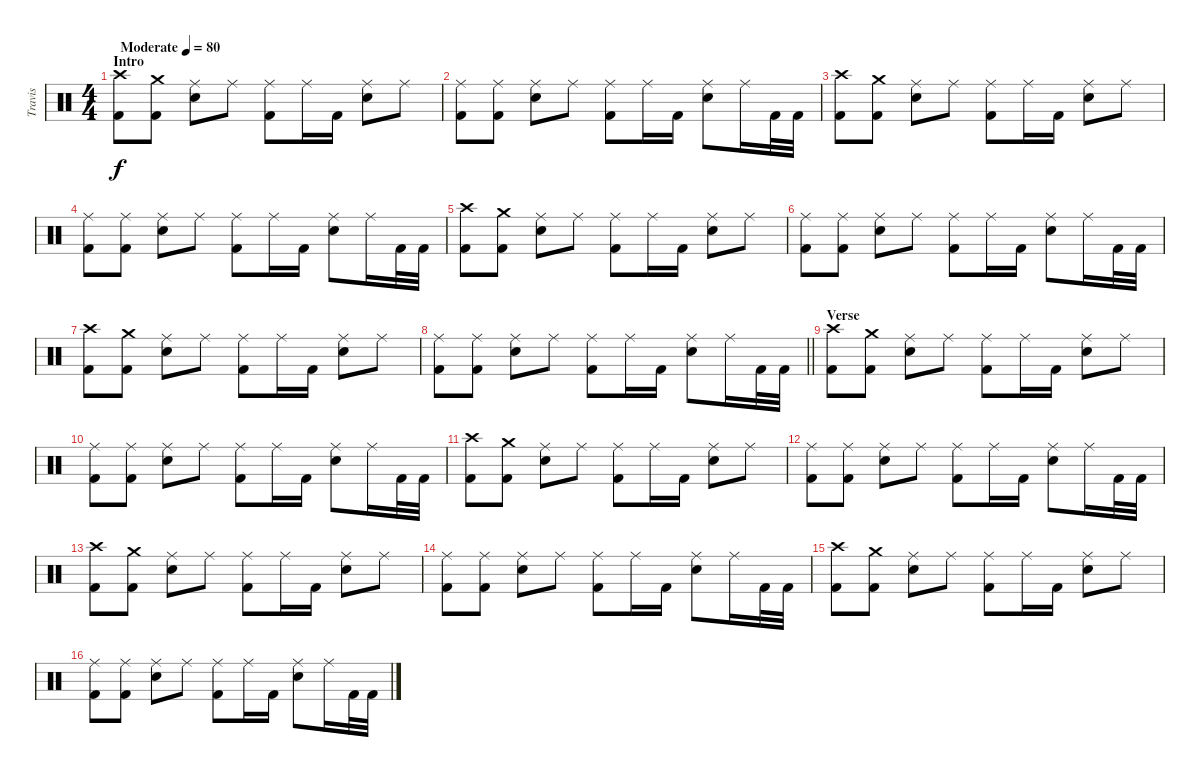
\track ("Travis" "Travis") {instrument percussion}
\staff {score}
\articulation defaults
\ts (4 4)
\section ("" "Intro")
\tempo (80 "Moderate")
\clef neutral
\ks c
("Crash high (hit)" "Kick (hit) 2").8{dy f} ("Crash medium (hit)" "Kick (hit) 2").8 ("Ride (middle)" "Snare (hit) 2").8 "Ride (middle)".8 ("Ride (middle)" "Kick (hit) 2").8 "Ride (middle)".16 "Kick (hit) 2".16 ("Ride (middle)" "Electric Snare (hit)").8 "Ride (middle)".8 |
("Ride (middle)" "Kick (hit) 2").8 ("Ride (middle)" "Kick (hit) 2").8 ("Ride (middle)" "Snare (hit) 2").8 "Ride (middle)".8 ("Ride (middle)" "Kick (hit) 2").8 "Ride (middle)".16 "Kick (hit) 2".16 ("Ride (middle)" "Electric Snare (hit)").8 "Ride (middle)".16 "Kick (hit) 2".32 "Kick (hit) 2".32 |
("Crash high (hit)" "Kick (hit) 2").8 ("Crash medium (hit)" "Kick (hit) 2").8 ("Ride (middle)" "Snare (hit) 2").8 "Ride (middle)".8 ("Ride (middle)" "Kick (hit) 2").8 "Ride (middle)".16 "Kick (hit) 2".16 ("Ride (middle)" "Electric Snare (hit)").8 "Ride (middle)".8 |
("Ride (middle)" "Kick (hit) 2").8 ("Ride (middle)" "Kick (hit) 2").8 ("Ride (middle)" "Snare (hit) 2").8 "Ride (middle)".8 ("Ride (middle)" "Kick (hit) 2").8 "Ride (middle)".16 "Kick (hit) 2".16 ("Ride (middle)" "Electric Snare (hit)").8 "Ride (middle)".16 "Kick (hit) 2".32 "Kick (hit) 2".32 |
("Crash high (hit)" "Kick (hit) 2").8 ("Crash medium (hit)" "Kick (hit) 2").8 ("Ride (middle)" "Snare (hit) 2").8 "Ride (middle)".8 ("Ride (middle)" "Kick (hit) 2").8 "Ride (middle)".16 "Kick (hit) 2".16 ("Ride (middle)" "Electric Snare (hit)").8 "Ride (middle)".8 |
("Ride (middle)" "Kick (hit) 2").8 ("Ride (middle)" "Kick (hit) 2").8 ("Ride (middle)" "Snare (hit) 2").8 "Ride (middle)".8 ("Ride (middle)" "Kick (hit) 2").8 "Ride (middle)".16 "Kick (hit) 2".16 ("Ride (middle)" "Electric Snare (hit)").8 "Ride (middle)".16 "Kick (hit) 2".32 "Kick (hit) 2".32 |
("Crash high (hit)" "Kick (hit) 2").8 ("Crash medium (hit)" "Kick (hit) 2").8 ("Ride (middle)" "Snare (hit) 2").8 "Ride (middle)".8 ("Ride (middle)" "Kick (hit) 2").8 "Ride (middle)".16 "Kick (hit) 2".16 ("Ride (middle)" "Electric Snare (hit)").8 "Ride (middle)".8 |
\barLineRight lightlight
("Ride (middle)" "Kick (hit) 2").8 ("Ride (middle)" "Kick (hit) 2").8 ("Ride (middle)" "Snare (hit) 2").8 "Ride (middle)".8 ("Ride (middle)" "Kick (hit) 2").8 "Ride (middle)".16 "Kick (hit) 2".16 ("Ride (middle)" "Electric Snare (hit)").8 "Ride (middle)".16 "Kick (hit) 2".32 "Kick (hit) 2".32 |
\section ("" "Verse")
("Crash high (hit)" "Kick (hit) 2").8 ("Crash medium (hit)" "Kick (hit) 2").8 ("Ride (middle)" "Snare (hit) 2").8 "Ride (middle)".8 ("Ride (middle)" "Kick (hit) 2").8 "Ride (middle)".16 "Kick (hit) 2".16 ("Ride (middle)" "Electric Snare (hit)").8 "Ride (middle)".8 |
("Ride (middle)" "Kick (hit) 2").8 ("Ride (middle)" "Kick (hit) 2").8 ("Ride (middle)" "Snare (hit) 2").8 "Ride (middle)".8 ("Ride (middle)" "Kick (hit) 2").8 "Ride (middle)".16 "Kick (hit) 2".16 ("Ride (middle)" "Electric Snare (hit)").8 "Ride (middle)".16 "Kick (hit) 2".32 "Kick (hit) 2".32 |
("Crash high (hit)" "Kick (hit) 2").8 ("Crash medium (hit)" "Kick (hit) 2").8 ("Ride (middle)" "Snare (hit) 2").8 "Ride (middle)".8 ("Ride (middle)" "Kick (hit) 2").8 "Ride (middle)".16 "Kick (hit) 2".16 ("Ride (middle)" "Electric Snare (hit)").8 "Ride (middle)".8 |
("Ride (middle)" "Kick (hit) 2").8 ("Ride (middle)" "Kick (hit) 2").8 ("Ride (middle)" "Snare (hit) 2").8 "Ride (middle)".8 ("Ride (middle)" "Kick (hit) 2").8 "Ride (middle)".16 "Kick (hit) 2".16 ("Ride (middle)" "Electric Snare (hit)").8 "Ride (middle)".16 "Kick (hit) 2".32 "Kick (hit) 2".32 |
("Crash high (hit)" "Kick (hit) 2").8 ("Crash medium (hit)" "Kick (hit) 2").8 ("Ride (middle)" "Snare (hit) 2").8 "Ride (middle)".8 ("Ride (middle)" "Kick (hit) 2").8 "Ride (middle)".16 "Kick (hit) 2".16 ("Ride (middle)" "Electric Snare (hit)").8 "Ride (middle)".8 |
("Ride (middle)" "Kick (hit) 2").8 ("Ride (middle)" "Kick (hit) 2").8 ("Ride (middle)" "Snare (hit) 2").8 "Ride (middle)".8 ("Ride (middle)" "Kick (hit) 2").8 "Ride (middle)".16 "Kick (hit) 2".16 ("Ride (middle)" "Electric Snare (hit)").8 "Ride (middle)".16 "Kick (hit) 2".32 "Kick (hit) 2".32 |
("Crash high (hit)" "Kick (hit) 2").8 ("Crash medium (hit)" "Kick (hit) 2").8 ("Ride (middle)" "Snare (hit) 2").8 "Ride (middle)".8 ("Ride (middle)" "Kick (hit) 2").8 "Ride (middle)".16 "Kick (hit) 2".16 ("Ride (middle)" "Electric Snare (hit)").8 "Ride (middle)".8 |
("Ride (middle)" "Kick (hit) 2").8 ("Ride (middle)" "Kick (hit) 2").8 ("Ride (middle)" "Snare (hit) 2").8 "Ride (middle)".8 ("Ride (middle)" "Kick (hit) 2").8 "Ride (middle)".16 "Kick (hit) 2".16 ("Ride (middle)" "Electric Snare (hit)").8 "Ride (middle)".16 "Kick (hit) 2".32 "Kick (hit) 2".32
